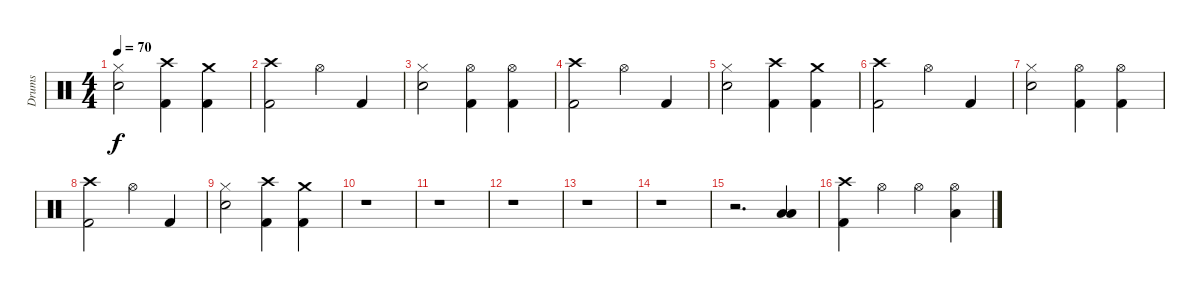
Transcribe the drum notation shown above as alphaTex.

\track ("Drums" "Drums") {instrument percussion}
\staff {score}
\articulation defaults
\ts (4 4)
\tempo 70
\clef neutral
\ks c
("Hi-Hat (closed)" "Electric Snare (hit)").2{dy f} ("Crash high (hit)" "Kick (hit) 2").4 ("Crash medium (hit)" "Kick (hit) 2").4 |
("Crash high (hit)" "Kick (hit) 2").2 "Hi-Hat (open)".4 "Kick (hit) 2".4 |
("Hi-Hat (closed)" "Electric Snare (hit)").2 ("Hi-Hat (open)" "Kick (hit) 2").4 ("Hi-Hat (open)" "Kick (hit) 2").4 |
("Crash high (hit)" "Kick (hit) 2").2 "Hi-Hat (open)".4 "Kick (hit) 2".4 |
("Hi-Hat (closed)" "Electric Snare (hit)").2 ("Crash high (hit)" "Kick (hit) 2").4 ("Crash medium (hit)" "Kick (hit) 2").4 |
("Crash high (hit)" "Kick (hit) 2").2 "Hi-Hat (open)".4 "Kick (hit) 2".4 |
("Hi-Hat (closed)" "Electric Snare (hit)").2 ("Hi-Hat (open)" "Kick (hit) 2").4 ("Hi-Hat (open)" "Kick (hit) 2").4 |
("Crash high (hit)" "Kick (hit) 2").2 "Hi-Hat (open)".4 "Kick (hit) 2".4 |
("Hi-Hat (closed)" "Electric Snare (hit)").2 ("Crash high (hit)" "Kick (hit) 2").4 ("Crash medium (hit)" "Kick (hit) 2").4 |
r.1 |
r.1 |
r.1 |
r.1 |
r.1 |
r.2{d} ("Low Floor Tom (hit)" "Low Floor Tom (hit)").4 |
("Crash high (hit)" "Kick (hit) 2").4 "Hi-Hat (open)".4 "Hi-Hat (open)".4 ("Hi-Hat (open)" "Low Floor Tom (hit)").4
